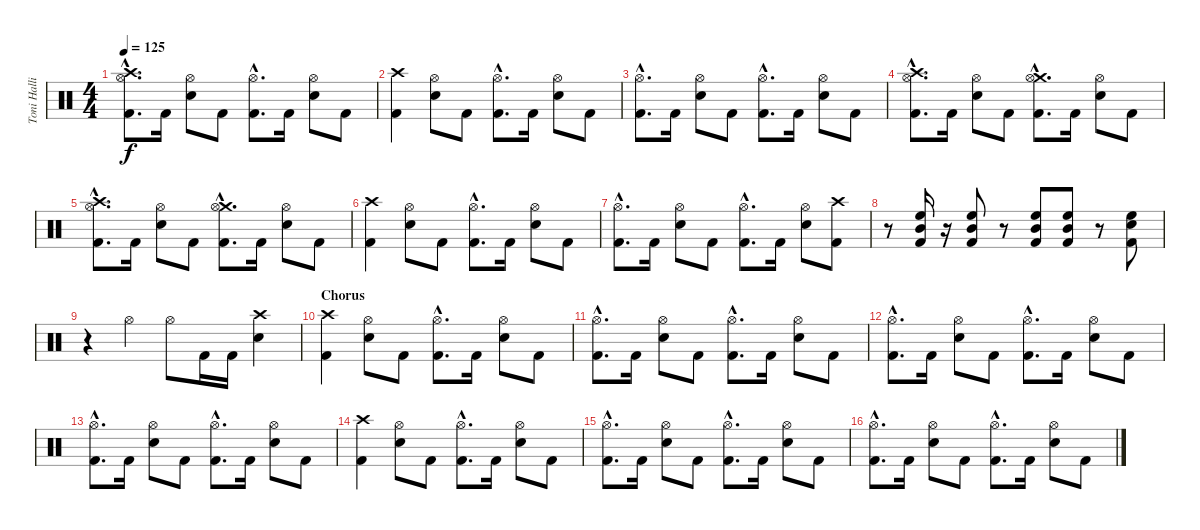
\track ("Toni Hallio" "Toni Halli") {instrument percussion}
\staff {score}
\articulation defaults
\ts (4 4)
\tempo 125
\clef neutral
\ks c
("Crash high (hit)"{hac} "Hi-Hat (open)"{hac} "Kick (hit) 2"{hac}).8{d dy f} "Kick (hit) 2".16 ("Snare (hit) 2" "Hi-Hat (open)").8 "Kick (hit) 2".8 ("Hi-Hat (open)"{hac} "Kick (hit) 2"{hac}).8{d} "Kick (hit) 2".16 ("Snare (hit) 2" "Hi-Hat (open)").8 "Kick (hit) 2".8 |
("Crash high (hit)" "Kick (hit) 2").4 ("Snare (hit) 2" "Hi-Hat (open)").8 "Kick (hit) 2".8 ("Hi-Hat (open)"{hac} "Kick (hit) 2"{hac}).8{d} "Kick (hit) 2".16 ("Snare (hit) 2" "Hi-Hat (open)").8 "Kick (hit) 2".8 |
("Hi-Hat (open)"{hac} "Kick (hit) 2"{hac}).8{d} "Kick (hit) 2".16 ("Snare (hit) 2" "Hi-Hat (open)").8 "Kick (hit) 2".8 ("Hi-Hat (open)"{hac} "Kick (hit) 2"{hac}).8{d} "Kick (hit) 2".16 ("Snare (hit) 2" "Hi-Hat (open)").8 "Kick (hit) 2".8 |
("Crash high (hit)"{hac} "Hi-Hat (open)"{hac} "Kick (hit) 2"{hac}).8{d} "Kick (hit) 2".16 ("Snare (hit) 2" "Hi-Hat (open)").8 "Kick (hit) 2".8 ("Crash medium (hit)"{hac} "Hi-Hat (open)"{hac} "Kick (hit) 2"{hac}).8{d} "Kick (hit) 2".16 ("Snare (hit) 2" "Hi-Hat (open)").8 "Kick (hit) 2".8 |
("Crash high (hit)"{hac} "Hi-Hat (open)"{hac} "Kick (hit) 2"{hac}).8{d} "Kick (hit) 2".16 ("Snare (hit) 2" "Hi-Hat (open)").8 "Kick (hit) 2".8 ("Crash medium (hit)"{hac} "Hi-Hat (open)"{hac} "Kick (hit) 2"{hac}).8{d} "Kick (hit) 2".16 ("Snare (hit) 2" "Hi-Hat (open)").8 "Kick (hit) 2".8 |
("Crash high (hit)" "Kick (hit) 2").4 ("Snare (hit) 2" "Hi-Hat (open)").8 "Kick (hit) 2".8 ("Hi-Hat (open)"{hac} "Kick (hit) 2"{hac}).8{d} "Kick (hit) 2".16 ("Snare (hit) 2" "Hi-Hat (open)").8 "Kick (hit) 2".8 |
("Hi-Hat (open)"{hac} "Kick (hit) 2"{hac}).8{d} "Kick (hit) 2".16 ("Snare (hit) 2" "Hi-Hat (open)").8 "Kick (hit) 2".8 ("Hi-Hat (open)"{hac} "Kick (hit) 2"{hac}).8{d} "Kick (hit) 2".16 ("Snare (hit) 2" "Hi-Hat (open)").8 ("Crash high (hit)" "Kick (hit) 2").8 |
r.8 ("High Floor Tom (hit)" "Mid Tom (hit)" "Kick (hit) 2").16 r.16 ("High Floor Tom (hit)" "Mid Tom (hit)" "Kick (hit) 2").8 r.8 ("High Floor Tom (hit)" "Mid Tom (hit)" "Kick (hit) 2").8 ("High Floor Tom (hit)" "Mid Tom (hit)" "Kick (hit) 2").8 r.8 ("Snare (hit) 2" "High Floor Tom (hit)" "Kick (hit) 2").8 |
r.4 "Hi-Hat (open)".4 "Hi-Hat (open)".8 "Kick (hit) 2".16 "Kick (hit) 2".16 ("Snare (hit) 2" "Crash high (hit)").4 |
\section ("" "Chorus")
("Crash high (hit)" "Kick (hit) 2").4 ("Snare (hit) 2" "Hi-Hat (open)").8 "Kick (hit) 2".8 ("Hi-Hat (open)"{hac} "Kick (hit) 2"{hac}).8{d} "Kick (hit) 2".16 ("Snare (hit) 2" "Hi-Hat (open)").8 "Kick (hit) 2".8 |
("Hi-Hat (open)"{hac} "Kick (hit) 2"{hac}).8{d} "Kick (hit) 2".16 ("Snare (hit) 2" "Hi-Hat (open)").8 "Kick (hit) 2".8 ("Hi-Hat (open)"{hac} "Kick (hit) 2"{hac}).8{d} "Kick (hit) 2".16 ("Snare (hit) 2" "Hi-Hat (open)").8 "Kick (hit) 2".8 |
("Hi-Hat (open)"{hac} "Kick (hit) 2"{hac}).8{d} "Kick (hit) 2".16 ("Snare (hit) 2" "Hi-Hat (open)").8 "Kick (hit) 2".8 ("Hi-Hat (open)"{hac} "Kick (hit) 2"{hac}).8{d} "Kick (hit) 2".16 ("Snare (hit) 2" "Hi-Hat (open)").8 "Kick (hit) 2".8 |
("Hi-Hat (open)"{hac} "Kick (hit) 2"{hac}).8{d} "Kick (hit) 2".16 ("Snare (hit) 2" "Hi-Hat (open)").8 "Kick (hit) 2".8 ("Hi-Hat (open)"{hac} "Kick (hit) 2"{hac}).8{d} "Kick (hit) 2".16 ("Snare (hit) 2" "Hi-Hat (open)").8 "Kick (hit) 2".8 |
("Crash high (hit)" "Kick (hit) 2").4 ("Snare (hit) 2" "Hi-Hat (open)").8 "Kick (hit) 2".8 ("Hi-Hat (open)"{hac} "Kick (hit) 2"{hac}).8{d} "Kick (hit) 2".16 ("Snare (hit) 2" "Hi-Hat (open)").8 "Kick (hit) 2".8 |
("Hi-Hat (open)"{hac} "Kick (hit) 2"{hac}).8{d} "Kick (hit) 2".16 ("Snare (hit) 2" "Hi-Hat (open)").8 "Kick (hit) 2".8 ("Hi-Hat (open)"{hac} "Kick (hit) 2"{hac}).8{d} "Kick (hit) 2".16 ("Snare (hit) 2" "Hi-Hat (open)").8 "Kick (hit) 2".8 |
("Hi-Hat (open)"{hac} "Kick (hit) 2"{hac}).8{d} "Kick (hit) 2".16 ("Snare (hit) 2" "Hi-Hat (open)").8 "Kick (hit) 2".8 ("Hi-Hat (open)"{hac} "Kick (hit) 2"{hac}).8{d} "Kick (hit) 2".16 ("Snare (hit) 2" "Hi-Hat (open)").8 "Kick (hit) 2".8
